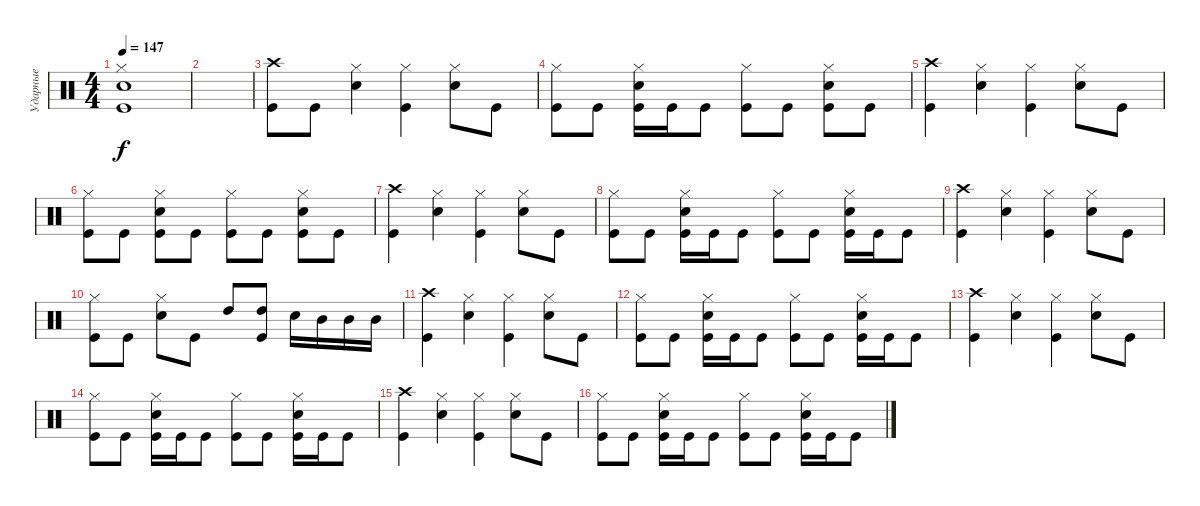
\track ("Ударные" "Ударные") {instrument percussion}
\staff {score}
\articulation defaults
\ts (4 4)
\tempo 147
\clef neutral
\ks c
("Hi-Hat (closed)" "Electric Snare (hit)" "Kick (hit)").1{dy f} |
|
("Crash high (hit)" "Kick (hit)").8 "Kick (hit)".8 ("Hi-Hat (closed)" "Electric Snare (hit)").4 ("Hi-Hat (closed)" "Kick (hit)").4 ("Hi-Hat (closed)" "Electric Snare (hit)").8 "Kick (hit)".8 |
("Hi-Hat (closed)" "Kick (hit)").8 "Kick (hit)".8 ("Hi-Hat (closed)" "Electric Snare (hit)" "Kick (hit)").16 "Kick (hit)".16 "Kick (hit)".8 ("Hi-Hat (closed)" "Kick (hit)").8 "Kick (hit)".8 ("Hi-Hat (closed)" "Electric Snare (hit)" "Kick (hit)").8 "Kick (hit)".8 |
("Crash high (hit)" "Kick (hit)").4 ("Hi-Hat (closed)" "Electric Snare (hit)").4 ("Hi-Hat (closed)" "Kick (hit)").4 ("Hi-Hat (closed)" "Electric Snare (hit)").8 "Kick (hit)".8 |
("Hi-Hat (closed)" "Kick (hit)").8 "Kick (hit)".8 ("Hi-Hat (closed)" "Electric Snare (hit)" "Kick (hit)").8 "Kick (hit)".8 ("Hi-Hat (closed)" "Kick (hit)").8 "Kick (hit)".8 ("Hi-Hat (closed)" "Electric Snare (hit)" "Kick (hit)").8 "Kick (hit)".8 |
("Crash high (hit)" "Kick (hit)").4 ("Hi-Hat (closed)" "Electric Snare (hit)").4 ("Hi-Hat (closed)" "Kick (hit)").4 ("Hi-Hat (closed)" "Electric Snare (hit)").8 "Kick (hit)".8 |
("Hi-Hat (closed)" "Kick (hit)").8 "Kick (hit)".8 ("Hi-Hat (closed)" "Electric Snare (hit)" "Kick (hit)").16 "Kick (hit)".16 "Kick (hit)".8 ("Hi-Hat (closed)" "Kick (hit)").8 "Kick (hit)".8 ("Hi-Hat (closed)" "Electric Snare (hit)" "Kick (hit)").16 "Kick (hit)".16 "Kick (hit)".8 |
("Crash high (hit)" "Kick (hit)").4 ("Hi-Hat (closed)" "Electric Snare (hit)").4 ("Hi-Hat (closed)" "Kick (hit)").4 ("Hi-Hat (closed)" "Electric Snare (hit)").8 "Kick (hit)".8 |
("Hi-Hat (closed)" "Kick (hit)").8 "Kick (hit)".8 ("Hi-Hat (closed)" "Electric Snare (hit)").8 "Kick (hit)".8 "High Tom (hit)".8 ("High Tom (hit)" "Kick (hit)").8 "Electric Snare (hit)".16 "Mid Tom (hit)".16 "Mid Tom (hit)".16 "Mid Tom (hit)".16 |
("Crash high (hit)" "Kick (hit)").4 ("Hi-Hat (closed)" "Electric Snare (hit)").4 ("Hi-Hat (closed)" "Kick (hit)").4 ("Hi-Hat (closed)" "Electric Snare (hit)").8 "Kick (hit)".8 |
("Hi-Hat (closed)" "Kick (hit)").8 "Kick (hit)".8 ("Hi-Hat (closed)" "Electric Snare (hit)" "Kick (hit)").16 "Kick (hit)".16 "Kick (hit)".8 ("Hi-Hat (closed)" "Kick (hit)").8 "Kick (hit)".8 ("Hi-Hat (closed)" "Electric Snare (hit)" "Kick (hit)").16 "Kick (hit)".16 "Kick (hit)".8 |
("Crash high (hit)" "Kick (hit)").4 ("Hi-Hat (closed)" "Electric Snare (hit)").4 ("Hi-Hat (closed)" "Kick (hit)").4 ("Hi-Hat (closed)" "Electric Snare (hit)").8 "Kick (hit)".8 |
("Hi-Hat (closed)" "Kick (hit)").8 "Kick (hit)".8 ("Hi-Hat (closed)" "Electric Snare (hit)" "Kick (hit)").16 "Kick (hit)".16 "Kick (hit)".8 ("Hi-Hat (closed)" "Kick (hit)").8 "Kick (hit)".8 ("Hi-Hat (closed)" "Electric Snare (hit)" "Kick (hit)").16 "Kick (hit)".16 "Kick (hit)".8 |
("Crash high (hit)" "Kick (hit)").4 ("Hi-Hat (closed)" "Electric Snare (hit)").4 ("Hi-Hat (closed)" "Kick (hit)").4 ("Hi-Hat (closed)" "Electric Snare (hit)").8 "Kick (hit)".8 |
("Hi-Hat (closed)" "Kick (hit)").8 "Kick (hit)".8 ("Hi-Hat (closed)" "Electric Snare (hit)" "Kick (hit)").16 "Kick (hit)".16 "Kick (hit)".8 ("Hi-Hat (closed)" "Kick (hit)").8 "Kick (hit)".8 ("Hi-Hat (closed)" "Electric Snare (hit)" "Kick (hit)").16 "Kick (hit)".16 "Kick (hit)".8
